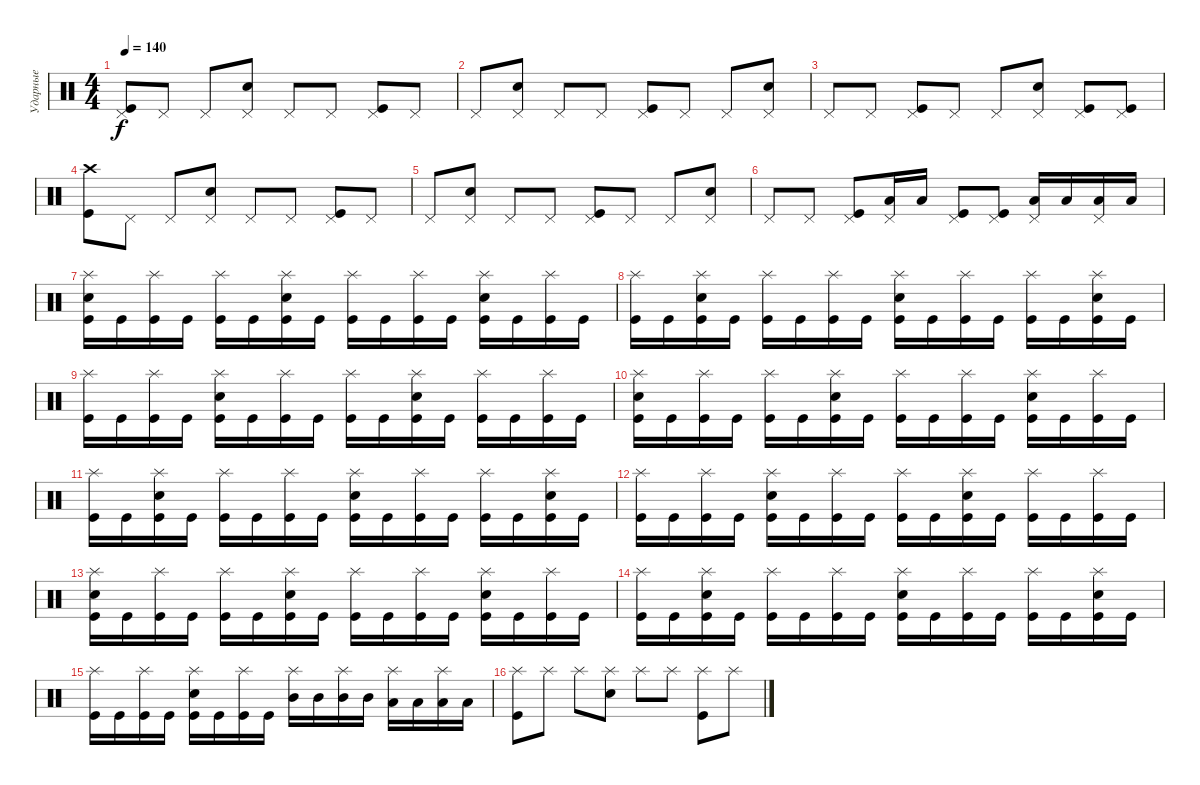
\track ("Ударные" "Ударные") {instrument percussion}
\staff {score}
\articulation defaults
\ts (4 4)
\tempo 140
\clef neutral
\ks c
("Kick (hit)" "Pedal Hi-Hat (hit)").8{dy f} "Pedal Hi-Hat (hit)".8 "Pedal Hi-Hat (hit)".8 ("Snare (hit) 2" "Pedal Hi-Hat (hit)").8 "Pedal Hi-Hat (hit)".8 "Pedal Hi-Hat (hit)".8 ("Kick (hit)" "Pedal Hi-Hat (hit)").8 "Pedal Hi-Hat (hit)".8 |
"Pedal Hi-Hat (hit)".8 ("Snare (hit) 2" "Pedal Hi-Hat (hit)").8 "Pedal Hi-Hat (hit)".8 "Pedal Hi-Hat (hit)".8 ("Kick (hit)" "Pedal Hi-Hat (hit)").8 "Pedal Hi-Hat (hit)".8 "Pedal Hi-Hat (hit)".8 ("Snare (hit) 2" "Pedal Hi-Hat (hit)").8 |
"Pedal Hi-Hat (hit)".8 "Pedal Hi-Hat (hit)".8 ("Kick (hit)" "Pedal Hi-Hat (hit)").8 "Pedal Hi-Hat (hit)".8 "Pedal Hi-Hat (hit)".8 ("Snare (hit) 2" "Pedal Hi-Hat (hit)").8 ("Kick (hit)" "Pedal Hi-Hat (hit)").8 ("Kick (hit)" "Pedal Hi-Hat (hit)").8 |
("Kick (hit)" "Crash high (hit)").8 "Pedal Hi-Hat (hit)".8 "Pedal Hi-Hat (hit)".8 ("Snare (hit) 2" "Pedal Hi-Hat (hit)").8 "Pedal Hi-Hat (hit)".8 "Pedal Hi-Hat (hit)".8 ("Kick (hit)" "Pedal Hi-Hat (hit)").8 "Pedal Hi-Hat (hit)".8 |
"Pedal Hi-Hat (hit)".8 ("Snare (hit) 2" "Pedal Hi-Hat (hit)").8 "Pedal Hi-Hat (hit)".8 "Pedal Hi-Hat (hit)".8 ("Kick (hit)" "Pedal Hi-Hat (hit)").8 "Pedal Hi-Hat (hit)".8 "Pedal Hi-Hat (hit)".8 ("Snare (hit) 2" "Pedal Hi-Hat (hit)").8 |
"Pedal Hi-Hat (hit)".8 "Pedal Hi-Hat (hit)".8 ("Kick (hit)" "Pedal Hi-Hat (hit)").8 ("Low Tom (hit)" "Pedal Hi-Hat (hit)").16 "Low Tom (hit)".16 ("Kick (hit)" "Pedal Hi-Hat (hit)").8 ("Kick (hit)" "Pedal Hi-Hat (hit)").8 ("Low Tom (hit)" "Pedal Hi-Hat (hit)").16 "Low Tom (hit)".16 ("Low Tom (hit)" "Pedal Hi-Hat (hit)").16 "Low Tom (hit)".16 |
("Kick (hit)" "Snare (hit) 2" "Splash (hit)").16 "Kick (hit)".16 ("Kick (hit)" "Splash (hit)").16 "Kick (hit)".16 ("Kick (hit)" "Splash (hit)").16 "Kick (hit)".16 ("Kick (hit)" "Snare (hit) 2" "Splash (hit)").16 "Kick (hit)".16 ("Kick (hit)" "Splash (hit)").16 "Kick (hit)".16 ("Kick (hit)" "Splash (hit)").16 "Kick (hit)".16 ("Kick (hit)" "Snare (hit) 2" "Splash (hit)").16 "Kick (hit)".16 ("Kick (hit)" "Splash (hit)").16 "Kick (hit)".16 |
("Kick (hit)" "Splash (hit)").16 "Kick (hit)".16 ("Kick (hit)" "Snare (hit) 2" "Splash (hit)").16 "Kick (hit)".16 ("Kick (hit)" "Splash (hit)").16 "Kick (hit)".16 ("Kick (hit)" "Splash (hit)").16 "Kick (hit)".16 ("Kick (hit)" "Snare (hit) 2" "Splash (hit)").16 "Kick (hit)".16 ("Kick (hit)" "Splash (hit)").16 "Kick (hit)".16 ("Kick (hit)" "Splash (hit)").16 "Kick (hit)".16 ("Kick (hit)" "Snare (hit) 2" "Splash (hit)").16 "Kick (hit)".16 |
("Kick (hit)" "Splash (hit)").16 "Kick (hit)".16 ("Kick (hit)" "Splash (hit)").16 "Kick (hit)".16 ("Kick (hit)" "Snare (hit) 2" "Splash (hit)").16 "Kick (hit)".16 ("Kick (hit)" "Splash (hit)").16 "Kick (hit)".16 ("Kick (hit)" "Splash (hit)").16 "Kick (hit)".16 ("Kick (hit)" "Snare (hit) 2" "Splash (hit)").16 "Kick (hit)".16 ("Kick (hit)" "Splash (hit)").16 "Kick (hit)".16 ("Kick (hit)" "Splash (hit)").16 "Kick (hit)".16 |
("Kick (hit)" "Snare (hit) 2" "Splash (hit)").16 "Kick (hit)".16 ("Kick (hit)" "Splash (hit)").16 "Kick (hit)".16 ("Kick (hit)" "Splash (hit)").16 "Kick (hit)".16 ("Kick (hit)" "Snare (hit) 2" "Splash (hit)").16 "Kick (hit)".16 ("Kick (hit)" "Splash (hit)").16 "Kick (hit)".16 ("Kick (hit)" "Splash (hit)").16 "Kick (hit)".16 ("Kick (hit)" "Snare (hit) 2" "Splash (hit)").16 "Kick (hit)".16 ("Kick (hit)" "Splash (hit)").16 "Kick (hit)".16 |
("Kick (hit)" "Splash (hit)").16 "Kick (hit)".16 ("Kick (hit)" "Snare (hit) 2" "Splash (hit)").16 "Kick (hit)".16 ("Kick (hit)" "Splash (hit)").16 "Kick (hit)".16 ("Kick (hit)" "Splash (hit)").16 "Kick (hit)".16 ("Kick (hit)" "Snare (hit) 2" "Splash (hit)").16 "Kick (hit)".16 ("Kick (hit)" "Splash (hit)").16 "Kick (hit)".16 ("Kick (hit)" "Splash (hit)").16 "Kick (hit)".16 ("Kick (hit)" "Snare (hit) 2" "Splash (hit)").16 "Kick (hit)".16 |
("Kick (hit)" "Splash (hit)").16 "Kick (hit)".16 ("Kick (hit)" "Splash (hit)").16 "Kick (hit)".16 ("Kick (hit)" "Snare (hit) 2" "Splash (hit)").16 "Kick (hit)".16 ("Kick (hit)" "Splash (hit)").16 "Kick (hit)".16 ("Kick (hit)" "Splash (hit)").16 "Kick (hit)".16 ("Kick (hit)" "Snare (hit) 2" "Splash (hit)").16 "Kick (hit)".16 ("Kick (hit)" "Splash (hit)").16 "Kick (hit)".16 ("Kick (hit)" "Splash (hit)").16 "Kick (hit)".16 |
("Kick (hit)" "Snare (hit) 2" "Splash (hit)").16 "Kick (hit)".16 ("Kick (hit)" "Splash (hit)").16 "Kick (hit)".16 ("Kick (hit)" "Splash (hit)").16 "Kick (hit)".16 ("Kick (hit)" "Snare (hit) 2" "Splash (hit)").16 "Kick (hit)".16 ("Kick (hit)" "Splash (hit)").16 "Kick (hit)".16 ("Kick (hit)" "Splash (hit)").16 "Kick (hit)".16 ("Kick (hit)" "Snare (hit) 2" "Splash (hit)").16 "Kick (hit)".16 ("Kick (hit)" "Splash (hit)").16 "Kick (hit)".16 |
("Kick (hit)" "Splash (hit)").16 "Kick (hit)".16 ("Kick (hit)" "Snare (hit) 2" "Splash (hit)").16 "Kick (hit)".16 ("Kick (hit)" "Splash (hit)").16 "Kick (hit)".16 ("Kick (hit)" "Splash (hit)").16 "Kick (hit)".16 ("Kick (hit)" "Snare (hit) 2" "Splash (hit)").16 "Kick (hit)".16 ("Kick (hit)" "Splash (hit)").16 "Kick (hit)".16 ("Kick (hit)" "Splash (hit)").16 "Kick (hit)".16 ("Kick (hit)" "Snare (hit) 2" "Splash (hit)").16 "Kick (hit)".16 |
("Kick (hit)" "Splash (hit)").16 "Kick (hit)".16 ("Kick (hit)" "Splash (hit)").16 "Kick (hit)".16 ("Kick (hit)" "Snare (hit) 2" "Splash (hit)").16 "Kick (hit)".16 ("Kick (hit)" "Splash (hit)").16 "Kick (hit)".16 ("Mid Tom (hit)" "Splash (hit)").16 "Mid Tom (hit)".16 ("Mid Tom (hit)" "Splash (hit)").16 "Mid Tom (hit)".16 ("Low Tom (hit)" "Splash (hit)").16 "Low Tom (hit)".16 ("Low Tom (hit)" "Splash (hit)").16 "Low Tom (hit)".16 |
("Kick (hit)" "Splash (hit)").8 "Splash (hit)".8 "Splash (hit)".8 ("Snare (hit) 2" "Splash (hit)").8 "Splash (hit)".8 "Splash (hit)".8 ("Kick (hit)" "Splash (hit)").8 "Splash (hit)".8
